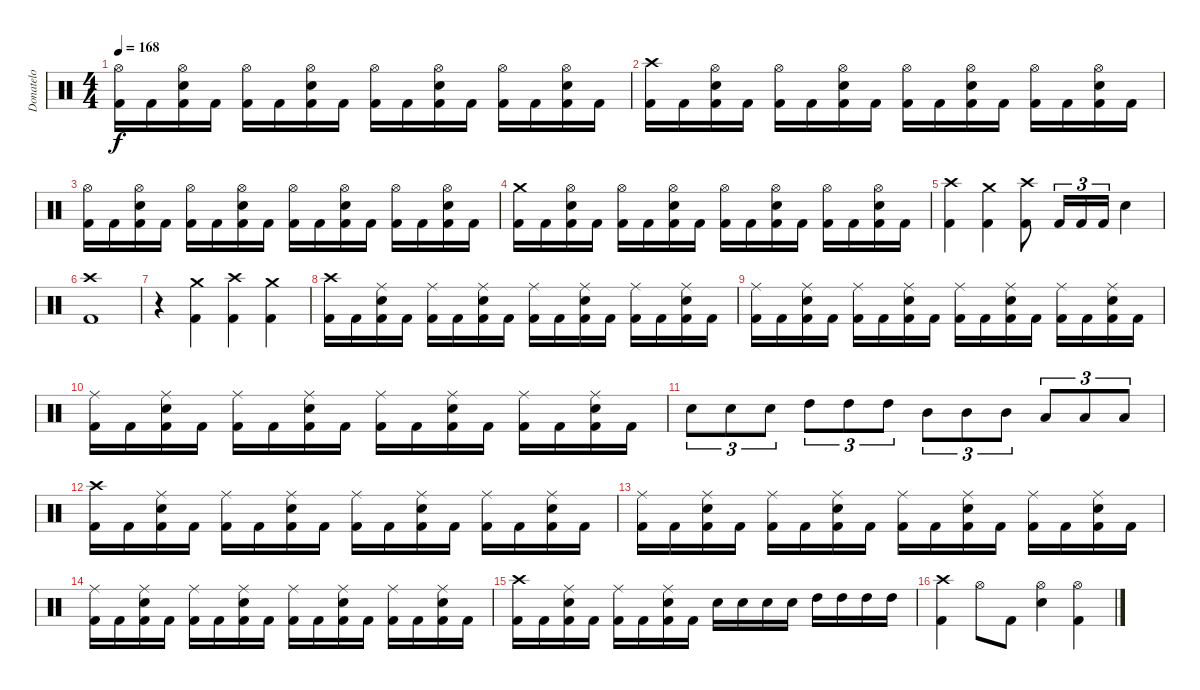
\track ("Donatelo" "Donatelo") {instrument percussion}
\staff {score}
\articulation defaults
\ts (4 4)
\tempo 168
\clef neutral
\ks c
("Kick (hit) 2" "Hi-Hat (open)").16{dy f} "Kick (hit) 2".16 ("Kick (hit) 2" "Electric Snare (hit)" "Hi-Hat (open)").16 "Kick (hit) 2".16 ("Kick (hit) 2" "Hi-Hat (open)").16 "Kick (hit) 2".16 ("Kick (hit) 2" "Electric Snare (hit)" "Hi-Hat (open)").16 "Kick (hit) 2".16 ("Kick (hit) 2" "Hi-Hat (open)").16 "Kick (hit) 2".16 ("Kick (hit) 2" "Electric Snare (hit)" "Hi-Hat (open)").16 "Kick (hit) 2".16 ("Kick (hit) 2" "Hi-Hat (open)").16 "Kick (hit) 2".16 ("Kick (hit) 2" "Electric Snare (hit)" "Hi-Hat (open)").16 "Kick (hit) 2".16 |
("Kick (hit) 2" "Crash high (hit)").16 "Kick (hit) 2".16 ("Kick (hit) 2" "Electric Snare (hit)" "Hi-Hat (open)").16 "Kick (hit) 2".16 ("Kick (hit) 2" "Hi-Hat (open)").16 "Kick (hit) 2".16 ("Kick (hit) 2" "Electric Snare (hit)" "Hi-Hat (open)").16 "Kick (hit) 2".16 ("Kick (hit) 2" "Hi-Hat (open)").16 "Kick (hit) 2".16 ("Kick (hit) 2" "Electric Snare (hit)" "Hi-Hat (open)").16 "Kick (hit) 2".16 ("Kick (hit) 2" "Hi-Hat (open)").16 "Kick (hit) 2".16 ("Kick (hit) 2" "Electric Snare (hit)" "Hi-Hat (open)").16 "Kick (hit) 2".16 |
("Kick (hit) 2" "Hi-Hat (open)").16 "Kick (hit) 2".16 ("Kick (hit) 2" "Electric Snare (hit)" "Hi-Hat (open)").16 "Kick (hit) 2".16 ("Kick (hit) 2" "Hi-Hat (open)").16 "Kick (hit) 2".16 ("Kick (hit) 2" "Electric Snare (hit)" "Hi-Hat (open)").16 "Kick (hit) 2".16 ("Kick (hit) 2" "Hi-Hat (open)").16 "Kick (hit) 2".16 ("Kick (hit) 2" "Electric Snare (hit)" "Hi-Hat (open)").16 "Kick (hit) 2".16 ("Kick (hit) 2" "Hi-Hat (open)").16 "Kick (hit) 2".16 ("Kick (hit) 2" "Electric Snare (hit)" "Hi-Hat (open)").16 "Kick (hit) 2".16 |
("Kick (hit) 2" "Crash medium (hit)").16 "Kick (hit) 2".16 ("Kick (hit) 2" "Electric Snare (hit)" "Hi-Hat (open)").16 "Kick (hit) 2".16 ("Kick (hit) 2" "Hi-Hat (open)").16 "Kick (hit) 2".16 ("Kick (hit) 2" "Electric Snare (hit)" "Hi-Hat (open)").16 "Kick (hit) 2".16 ("Kick (hit) 2" "Hi-Hat (open)").16 "Kick (hit) 2".16 ("Kick (hit) 2" "Electric Snare (hit)" "Hi-Hat (open)").16 "Kick (hit) 2".16 ("Kick (hit) 2" "Hi-Hat (open)").16 "Kick (hit) 2".16 ("Kick (hit) 2" "Electric Snare (hit)" "Hi-Hat (open)").16 "Kick (hit) 2".16 |
("Kick (hit) 2" "Crash high (hit)").4 ("Kick (hit) 2" "Crash medium (hit)").4 ("Kick (hit) 2" "Crash high (hit)").8 "Kick (hit) 2".16{tu (3 2)} "Kick (hit) 2".16{tu (3 2)} "Kick (hit) 2".16{tu (3 2)} "Electric Snare (hit)".4 |
("Kick (hit) 2" "Crash high (hit)").1 |
r.4 ("Kick (hit) 2" "Crash medium (hit)").4 ("Kick (hit) 2" "Crash high (hit)").4 ("Kick (hit) 2" "Crash medium (hit)").4 |
("Kick (hit) 2" "Crash high (hit)").16 "Kick (hit) 2".16 ("Kick (hit) 2" "Electric Snare (hit)" "Ride (middle)").16 "Kick (hit) 2".16 ("Kick (hit) 2" "Ride (middle)").16 "Kick (hit) 2".16 ("Kick (hit) 2" "Electric Snare (hit)" "Ride (middle)").16 "Kick (hit) 2".16 ("Kick (hit) 2" "Ride (middle)").16 "Kick (hit) 2".16 ("Kick (hit) 2" "Electric Snare (hit)" "Ride (middle)").16 "Kick (hit) 2".16 ("Kick (hit) 2" "Ride (middle)").16 "Kick (hit) 2".16 ("Kick (hit) 2" "Electric Snare (hit)" "Ride (middle)").16 "Kick (hit) 2".16 |
("Kick (hit) 2" "Ride (middle)").16 "Kick (hit) 2".16 ("Kick (hit) 2" "Electric Snare (hit)" "Ride (middle)").16 "Kick (hit) 2".16 ("Kick (hit) 2" "Ride (middle)").16 "Kick (hit) 2".16 ("Kick (hit) 2" "Electric Snare (hit)" "Ride (middle)").16 "Kick (hit) 2".16 ("Kick (hit) 2" "Ride (middle)").16 "Kick (hit) 2".16 ("Kick (hit) 2" "Electric Snare (hit)" "Ride (middle)").16 "Kick (hit) 2".16 ("Kick (hit) 2" "Ride (middle)").16 "Kick (hit) 2".16 ("Kick (hit) 2" "Electric Snare (hit)" "Ride (middle)").16 "Kick (hit) 2".16 |
("Kick (hit) 2" "Ride (middle)").16 "Kick (hit) 2".16 ("Kick (hit) 2" "Electric Snare (hit)" "Ride (middle)").16 "Kick (hit) 2".16 ("Kick (hit) 2" "Ride (middle)").16 "Kick (hit) 2".16 ("Kick (hit) 2" "Electric Snare (hit)" "Ride (middle)").16 "Kick (hit) 2".16 ("Kick (hit) 2" "Ride (middle)").16 "Kick (hit) 2".16 ("Kick (hit) 2" "Electric Snare (hit)" "Ride (middle)").16 "Kick (hit) 2".16 ("Kick (hit) 2" "Ride (middle)").16 "Kick (hit) 2".16 ("Kick (hit) 2" "Electric Snare (hit)" "Ride (middle)").16 "Kick (hit) 2".16 |
"Electric Snare (hit)".8{tu (3 2)} "Electric Snare (hit)".8{tu (3 2)} "Electric Snare (hit)".8{tu (3 2)} "High Tom (hit)".8{tu (3 2)} "High Tom (hit)".8{tu (3 2)} "High Tom (hit)".8{tu (3 2)} "Mid Tom (hit)".8{tu (3 2)} "Mid Tom (hit)".8{tu (3 2)} "Mid Tom (hit)".8{tu (3 2)} "Low Tom (hit)".8{tu (3 2)} "Low Tom (hit)".8{tu (3 2)} "Low Tom (hit)".8{tu (3 2)} |
("Kick (hit) 2" "Crash high (hit)").16 "Kick (hit) 2".16 ("Kick (hit) 2" "Electric Snare (hit)" "Ride (middle)").16 "Kick (hit) 2".16 ("Kick (hit) 2" "Ride (middle)").16 "Kick (hit) 2".16 ("Kick (hit) 2" "Electric Snare (hit)" "Ride (middle)").16 "Kick (hit) 2".16 ("Kick (hit) 2" "Ride (middle)").16 "Kick (hit) 2".16 ("Kick (hit) 2" "Electric Snare (hit)" "Ride (middle)").16 "Kick (hit) 2".16 ("Kick (hit) 2" "Ride (middle)").16 "Kick (hit) 2".16 ("Kick (hit) 2" "Electric Snare (hit)" "Ride (middle)").16 "Kick (hit) 2".16 |
("Kick (hit) 2" "Ride (middle)").16 "Kick (hit) 2".16 ("Kick (hit) 2" "Electric Snare (hit)" "Ride (middle)").16 "Kick (hit) 2".16 ("Kick (hit) 2" "Ride (middle)").16 "Kick (hit) 2".16 ("Kick (hit) 2" "Electric Snare (hit)" "Ride (middle)").16 "Kick (hit) 2".16 ("Kick (hit) 2" "Ride (middle)").16 "Kick (hit) 2".16 ("Kick (hit) 2" "Electric Snare (hit)" "Ride (middle)").16 "Kick (hit) 2".16 ("Kick (hit) 2" "Ride (middle)").16 "Kick (hit) 2".16 ("Kick (hit) 2" "Electric Snare (hit)" "Ride (middle)").16 "Kick (hit) 2".16 |
("Kick (hit) 2" "Ride (middle)").16 "Kick (hit) 2".16 ("Kick (hit) 2" "Electric Snare (hit)" "Ride (middle)").16 "Kick (hit) 2".16 ("Kick (hit) 2" "Ride (middle)").16 "Kick (hit) 2".16 ("Kick (hit) 2" "Electric Snare (hit)" "Ride (middle)").16 "Kick (hit) 2".16 ("Kick (hit) 2" "Ride (middle)").16 "Kick (hit) 2".16 ("Kick (hit) 2" "Electric Snare (hit)" "Ride (middle)").16 "Kick (hit) 2".16 ("Kick (hit) 2" "Ride (middle)").16 "Kick (hit) 2".16 ("Kick (hit) 2" "Electric Snare (hit)" "Ride (middle)").16 "Kick (hit) 2".16 |
("Kick (hit) 2" "Crash high (hit)").16 "Kick (hit) 2".16 ("Kick (hit) 2" "Electric Snare (hit)" "Ride (middle)").16 "Kick (hit) 2".16 ("Kick (hit) 2" "Ride (middle)").16 "Kick (hit) 2".16 ("Kick (hit) 2" "Electric Snare (hit)" "Ride (middle)").16 "Kick (hit) 2".16 "Electric Snare (hit)".16 "Electric Snare (hit)".16 "Electric Snare (hit)".16 "Electric Snare (hit)".16 "High Tom (hit)".16 "High Tom (hit)".16 "High Tom (hit)".16 "High Tom (hit)".16 |
("Kick (hit) 2" "Crash high (hit)").4 "Hi-Hat (open)".8 "Kick (hit) 2".8 ("Electric Snare (hit)" "Hi-Hat (open)").4 ("Kick (hit) 2" "Hi-Hat (open)").4
